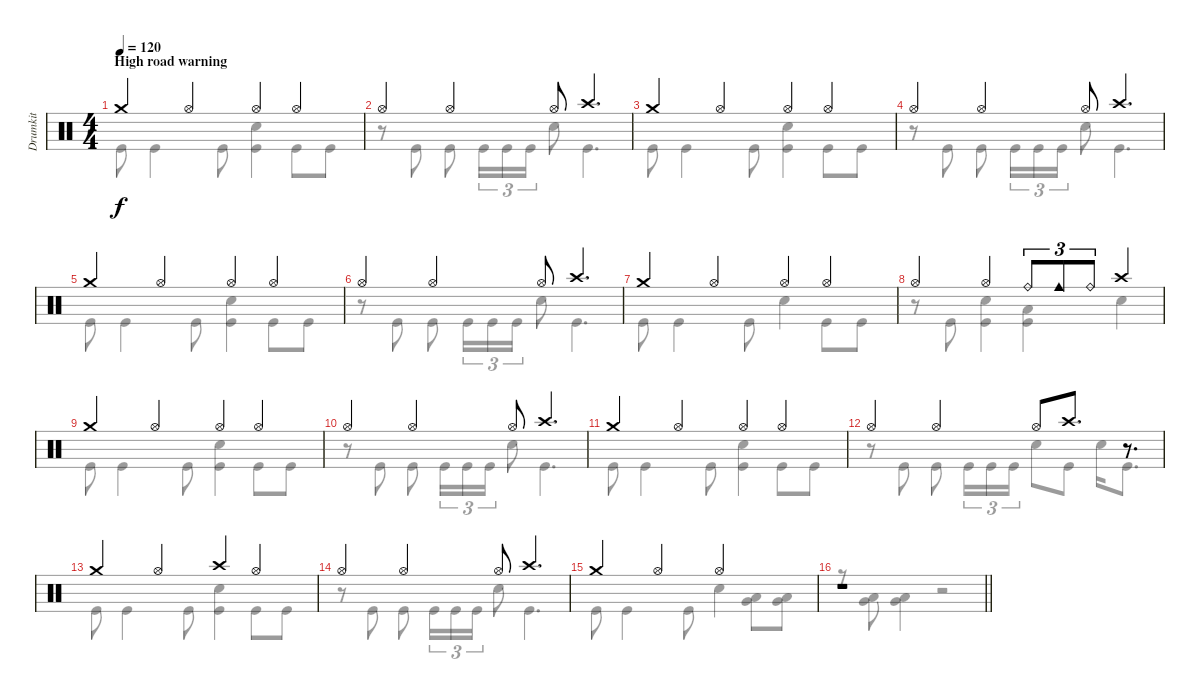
\track ("Drumkit" "Drumkit") {instrument percussion}
\staff {score}
\articulation defaults
\voice
\ts (4 4)
\section ("" "High road warning")
\tempo 120
\clef neutral
\ks c "Crash medium (hit)".4{dy f} "Hi-Hat (open)".4 "Hi-Hat (open)".4 "Hi-Hat (open)".4
|
"Hi-Hat (open)".4 "Hi-Hat (open)".4 "Hi-Hat (open)".8 "Crash high (hit)".4{d} |
"Crash medium (hit)".4 "Hi-Hat (open)".4 "Hi-Hat (open)".4 "Hi-Hat (open)".4 |
"Hi-Hat (open)".4 "Hi-Hat (open)".4 "Hi-Hat (open)".8 "Crash high (hit)".4{d} |
"Crash medium (hit)".4 "Hi-Hat (open)".4 "Hi-Hat (open)".4 "Hi-Hat (open)".4 |
"Hi-Hat (open)".4 "Hi-Hat (open)".4 "Hi-Hat (open)".8 "Crash high (hit)".4{d} |
"Crash medium (hit)".4 "Hi-Hat (open)".4 "Hi-Hat (open)".4 "Hi-Hat (open)".4 |
"Hi-Hat (open)".4 "Hi-Hat (open)".4 "Ride (bell)".8{tu (3 2)} "Cowbell medium (hit)".8{tu (3 2)} "Ride (bell)".8{tu (3 2)} "Crash high (hit)".4 |
"Crash medium (hit)".4 "Hi-Hat (open)".4 "Hi-Hat (open)".4 "Hi-Hat (open)".4 |
"Hi-Hat (open)".4 "Hi-Hat (open)".4 "Hi-Hat (open)".8 "Crash high (hit)".4{d} |
"Crash medium (hit)".4 "Hi-Hat (open)".4 "Hi-Hat (open)".4 "Hi-Hat (open)".4 |
"Hi-Hat (open)".4 "Hi-Hat (open)".4 "Hi-Hat (open)".8 "Crash high (hit)".8{d} r.8{d} |
"Crash medium (hit)".4 "Hi-Hat (open)".4 "Crash high (hit)".4 "Hi-Hat (open)".4 |
"Hi-Hat (open)".4 "Hi-Hat (open)".4 "Hi-Hat (open)".8 "Crash high (hit)".4{d} |
"Crash medium (hit)".4 "Hi-Hat (open)".4 "Hi-Hat (open)".2 |
\barLineRight lightlight
r.1
\voice
\clef neutral
\ottava regular
\simile none
\ks c "Kick (hit)".8{dy f} "Kick (hit)".4 "Kick (hit)".8
("Snare (hit) 2" "Kick (hit)").4 "Kick (hit)".8 "Kick (hit)".8 |
r.8 "Kick (hit)".8 "Kick (hit)".8 "Kick (hit)".16{tu (3 2)} "Kick (hit)".16{tu (3 2)} "Kick (hit)".16{tu (3 2)} "Snare (hit) 2".8 "Kick (hit)".4{d} |
"Kick (hit)".8 "Kick (hit)".4 "Kick (hit)".8 ("Snare (hit) 2" "Kick (hit)").4 "Kick (hit)".8 "Kick (hit)".8 |
r.8 "Kick (hit)".8 "Kick (hit)".8 "Kick (hit)".16{tu (3 2)} "Kick (hit)".16{tu (3 2)} "Kick (hit)".16{tu (3 2)} "Snare (hit) 2".8 "Kick (hit)".4{d} |
"Kick (hit)".8 "Kick (hit)".4 "Kick (hit)".8 ("Snare (hit) 2" "Kick (hit)").4 "Kick (hit)".8 "Kick (hit)".8 |
r.8 "Kick (hit)".8 "Kick (hit)".8 "Kick (hit)".16{tu (3 2)} "Kick (hit)".16{tu (3 2)} "Kick (hit)".16{tu (3 2)} "Snare (hit) 2".8 "Kick (hit)".4{d} |
"Kick (hit)".8 "Kick (hit)".4 "Kick (hit)".8 "Snare (hit) 2".4 "Kick (hit)".8 "Kick (hit)".8 |
r.8 "Kick (hit)".8 ("Snare (hit) 2" "Kick (hit)").4 ("Low Floor Tom (hit)" "Kick (hit)").4 "Snare (hit) 2".4 |
"Kick (hit)".8 "Kick (hit)".4 "Kick (hit)".8 ("Snare (hit) 2" "Kick (hit)").4 "Kick (hit)".8 "Kick (hit)".8 |
r.8 "Kick (hit)".8 "Kick (hit)".8 "Kick (hit)".16{tu (3 2)} "Kick (hit)".16{tu (3 2)} "Kick (hit)".16{tu (3 2)} "Snare (hit) 2".8 "Kick (hit)".4{d} |
"Kick (hit)".8 "Kick (hit)".4 "Kick (hit)".8 ("Snare (hit) 2" "Kick (hit)").4 "Kick (hit)".8 "Kick (hit)".8 |
r.8 "Kick (hit)".8 "Kick (hit)".8 "Kick (hit)".16{tu (3 2)} "Kick (hit)".16{tu (3 2)} "Kick (hit)".16{tu (3 2)} "Snare (hit) 2".8 "Kick (hit)".8 "Snare (hit) 2".16 "Kick (hit)".8{d} |
"Kick (hit)".8 "Kick (hit)".4 "Kick (hit)".8 ("Snare (hit) 2" "Kick (hit)").4 "Kick (hit)".8 "Kick (hit)".8 |
r.8 "Kick (hit)".8 "Kick (hit)".8 "Kick (hit)".16{tu (3 2)} "Kick (hit)".16{tu (3 2)} "Kick (hit)".16{tu (3 2)} "Snare (hit) 2".8 "Kick (hit)".4{d} |
"Kick (hit)".8 "Kick (hit)".4 "Kick (hit)".8 "Snare (hit) 2".4 ("Low Tom (hit)" "Very Low Tom (hit)").8 ("Low Tom (hit)" "Very Low Tom (hit)").8 |
\barLineRight lightlight
r.8 ("Low Tom (hit)" "Very Low Tom (hit)").8 ("Low Tom (hit)" "Very Low Tom (hit)").4 r.2
